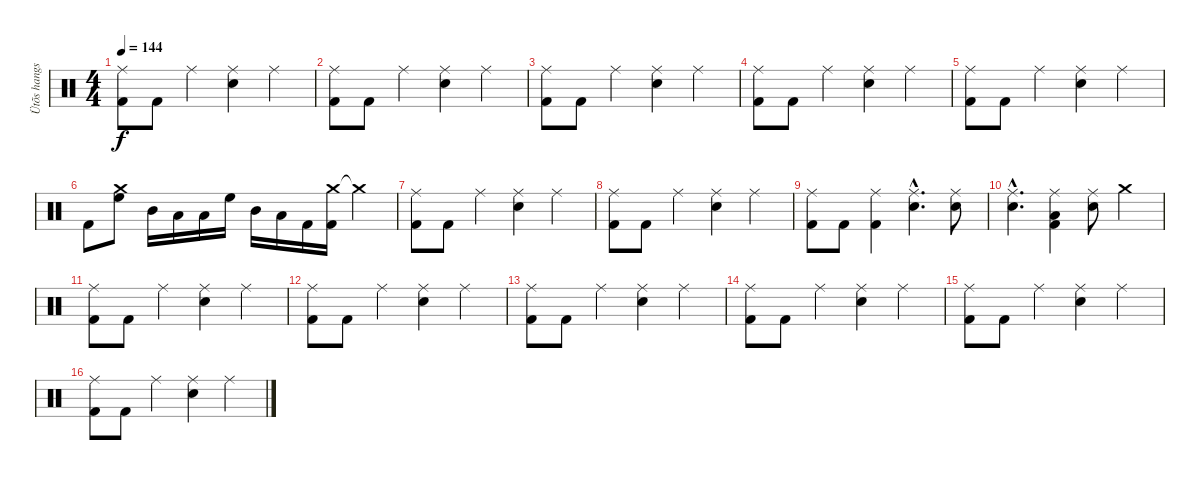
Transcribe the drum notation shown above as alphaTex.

\track ("Ütõs hangszer" "Ütõs hangs") {instrument percussion}
\staff {score}
\articulation defaults
\ts (4 4)
\tempo 144
\clef neutral
\ks c
("Ride (middle)" "Kick (hit) 2").8{dy f} "Kick (hit) 2".8 "Ride (middle)".4 ("Ride (middle)" "Snare (hit) 2").4 "Ride (middle)".4 |
("Ride (middle)" "Kick (hit) 2").8 "Kick (hit) 2".8 "Ride (middle)".4 ("Ride (middle)" "Snare (hit) 2").4 "Ride (middle)".4 |
("Ride (middle)" "Kick (hit) 2").8 "Kick (hit) 2".8 "Ride (middle)".4 ("Ride (middle)" "Snare (hit) 2").4 "Ride (middle)".4 |
("Ride (middle)" "Kick (hit) 2").8 "Kick (hit) 2".8 "Ride (middle)".4 ("Ride (middle)" "Snare (hit) 2").4 "Ride (middle)".4 |
("Ride (middle)" "Kick (hit) 2").8 "Kick (hit) 2".8 "Ride (middle)".4 ("Ride (middle)" "Snare (hit) 2").4 "Ride (middle)".4 |
"Kick (hit) 2".8 ("Crash medium (hit)" "High Floor Tom (hit)").8 "Mid Tom (hit)".16 "Low Tom (hit)".16 "Low Floor Tom (hit)".16 "High Floor Tom (hit)".16 "Mid Tom (hit)".16 "Low Tom (hit)".16 "Kick (hit) 2".16 ("Crash medium (hit)" "Kick (hit) 2").16 "Crash medium (hit)"{t}.4 |
("Ride (middle)" "Kick (hit) 2").8 "Kick (hit) 2".8 "Ride (middle)".4 ("Ride (middle)" "Snare (hit) 2").4 "Ride (middle)".4 |
("Ride (middle)" "Kick (hit) 2").8 "Kick (hit) 2".8 "Ride (middle)".4 ("Ride (middle)" "Snare (hit) 2").4 "Ride (middle)".4 |
("Ride (middle)" "Kick (hit) 2").8 "Kick (hit) 2".8 ("Ride (middle)" "Kick (hit) 2").4 ("Ride (middle)"{hac} "Snare (hit) 2"{hac}).4{d} ("Ride (middle)" "Snare (hit) 2").8 |
("Ride (middle)"{hac} "Snare (hit) 2"{hac}).4{d} ("Ride (middle)" "Low Floor Tom (hit)" "Kick (hit) 2").4 ("Ride (middle)" "Snare (hit) 2").8 "Crash medium (hit)".4 |
("Ride (middle)" "Kick (hit) 2").8 "Kick (hit) 2".8 "Ride (middle)".4 ("Ride (middle)" "Snare (hit) 2").4 "Ride (middle)".4 |
("Ride (middle)" "Kick (hit) 2").8 "Kick (hit) 2".8 "Ride (middle)".4 ("Ride (middle)" "Snare (hit) 2").4 "Ride (middle)".4 |
("Ride (middle)" "Kick (hit) 2").8 "Kick (hit) 2".8 "Ride (middle)".4 ("Ride (middle)" "Snare (hit) 2").4 "Ride (middle)".4 |
("Ride (middle)" "Kick (hit) 2").8 "Kick (hit) 2".8 "Ride (middle)".4 ("Ride (middle)" "Snare (hit) 2").4 "Ride (middle)".4 |
("Ride (middle)" "Kick (hit) 2").8 "Kick (hit) 2".8 "Ride (middle)".4 ("Ride (middle)" "Snare (hit) 2").4 "Ride (middle)".4 |
("Ride (middle)" "Kick (hit) 2").8 "Kick (hit) 2".8 "Ride (middle)".4 ("Ride (middle)" "Snare (hit) 2").4 "Ride (middle)".4
